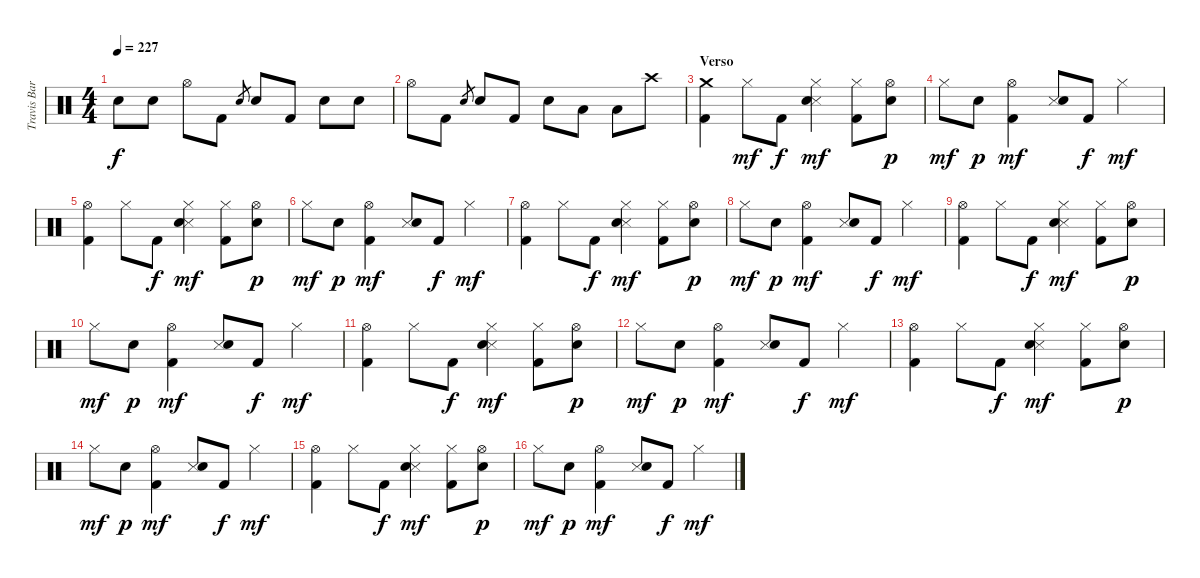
\track ("Travis Barker - Batería" "Travis Bar") {instrument percussion}
\staff {score}
\articulation defaults
\ts (4 4)
\tempo 227
\clef neutral
\ks c "Electric Snare (hit)".8{dy f} "Electric Snare (hit)".8 "Hi-Hat (open)".8 "Kick (hit) 2".8 "Electric Snare (hit)".8{gr} "Electric Snare (hit)".8 "Kick (hit) 2".8 "Electric Snare (hit)".8 "Electric Snare (hit)".8
|
"Hi-Hat (open)".8 "Kick (hit) 2".8 "Electric Snare (hit)".8{gr} "Electric Snare (hit)".8 "Kick (hit) 2".8 "Electric Snare (hit)".8 "Low Tom (hit)".8 "Low Floor Tom (hit)".8 "Crash high (hit)".8 |
\section ("" "Verso")
("Crash medium (hit)" "Kick (hit) 2").4 "Hi-Hat (closed)".8{dy mf} "Kick (hit) 2".8{dy f} ("Hi-Hat (closed)" "Snare (side stick) 3" "Electric Snare (hit)").4{dy mf} ("Hi-Hat (closed)" "Kick (hit) 2").8 ("Hi-Hat (open)" "Electric Snare (hit)").8{dy p} |
"Hi-Hat (closed)".8{dy mf} "Electric Snare (hit)".8{dy p} ("Hi-Hat (open)" "Kick (hit) 2").4{dy mf} ("Snare (side stick) 3" "Electric Snare (hit)").8 "Kick (hit) 2".8{dy f} "Hi-Hat (closed)".4{dy mf} |
("Hi-Hat (open)" "Kick (hit) 2").4 "Hi-Hat (closed)".8 "Kick (hit) 2".8{dy f} ("Hi-Hat (closed)" "Snare (side stick) 3" "Electric Snare (hit)").4{dy mf} ("Hi-Hat (closed)" "Kick (hit) 2").8 ("Hi-Hat (open)" "Electric Snare (hit)").8{dy p} |
"Hi-Hat (closed)".8{dy mf} "Electric Snare (hit)".8{dy p} ("Hi-Hat (open)" "Kick (hit) 2").4{dy mf} ("Snare (side stick) 3" "Electric Snare (hit)").8 "Kick (hit) 2".8{dy f} "Hi-Hat (closed)".4{dy mf} |
("Hi-Hat (open)" "Kick (hit) 2").4 "Hi-Hat (closed)".8 "Kick (hit) 2".8{dy f} ("Hi-Hat (closed)" "Snare (side stick) 3" "Electric Snare (hit)").4{dy mf} ("Hi-Hat (closed)" "Kick (hit) 2").8 ("Hi-Hat (open)" "Electric Snare (hit)").8{dy p} |
"Hi-Hat (closed)".8{dy mf} "Electric Snare (hit)".8{dy p} ("Hi-Hat (open)" "Kick (hit) 2").4{dy mf} ("Snare (side stick) 3" "Electric Snare (hit)").8 "Kick (hit) 2".8{dy f} "Hi-Hat (closed)".4{dy mf} |
("Hi-Hat (open)" "Kick (hit) 2").4 "Hi-Hat (closed)".8 "Kick (hit) 2".8{dy f} ("Hi-Hat (closed)" "Snare (side stick) 3" "Electric Snare (hit)").4{dy mf} ("Hi-Hat (closed)" "Kick (hit) 2").8 ("Hi-Hat (open)" "Electric Snare (hit)").8{dy p} |
"Hi-Hat (closed)".8{dy mf} "Electric Snare (hit)".8{dy p} ("Hi-Hat (open)" "Kick (hit) 2").4{dy mf} ("Snare (side stick) 3" "Electric Snare (hit)").8 "Kick (hit) 2".8{dy f} "Hi-Hat (closed)".4{dy mf} |
("Hi-Hat (open)" "Kick (hit) 2").4 "Hi-Hat (closed)".8 "Kick (hit) 2".8{dy f} ("Hi-Hat (closed)" "Snare (side stick) 3" "Electric Snare (hit)").4{dy mf} ("Hi-Hat (closed)" "Kick (hit) 2").8 ("Hi-Hat (open)" "Electric Snare (hit)").8{dy p} |
"Hi-Hat (closed)".8{dy mf} "Electric Snare (hit)".8{dy p} ("Hi-Hat (open)" "Kick (hit) 2").4{dy mf} ("Snare (side stick) 3" "Electric Snare (hit)").8 "Kick (hit) 2".8{dy f} "Hi-Hat (closed)".4{dy mf} |
("Hi-Hat (open)" "Kick (hit) 2").4 "Hi-Hat (closed)".8 "Kick (hit) 2".8{dy f} ("Hi-Hat (closed)" "Snare (side stick) 3" "Electric Snare (hit)").4{dy mf} ("Hi-Hat (closed)" "Kick (hit) 2").8 ("Hi-Hat (open)" "Electric Snare (hit)").8{dy p} |
"Hi-Hat (closed)".8{dy mf} "Electric Snare (hit)".8{dy p} ("Hi-Hat (open)" "Kick (hit) 2").4{dy mf} ("Snare (side stick) 3" "Electric Snare (hit)").8 "Kick (hit) 2".8{dy f} "Hi-Hat (closed)".4{dy mf} |
("Hi-Hat (open)" "Kick (hit) 2").4 "Hi-Hat (closed)".8 "Kick (hit) 2".8{dy f} ("Hi-Hat (closed)" "Snare (side stick) 3" "Electric Snare (hit)").4{dy mf} ("Hi-Hat (closed)" "Kick (hit) 2").8 ("Hi-Hat (open)" "Electric Snare (hit)").8{dy p} |
"Hi-Hat (closed)".8{dy mf} "Electric Snare (hit)".8{dy p} ("Hi-Hat (open)" "Kick (hit) 2").4{dy mf} ("Snare (side stick) 3" "Electric Snare (hit)").8 "Kick (hit) 2".8{dy f} "Hi-Hat (closed)".4{dy mf}
